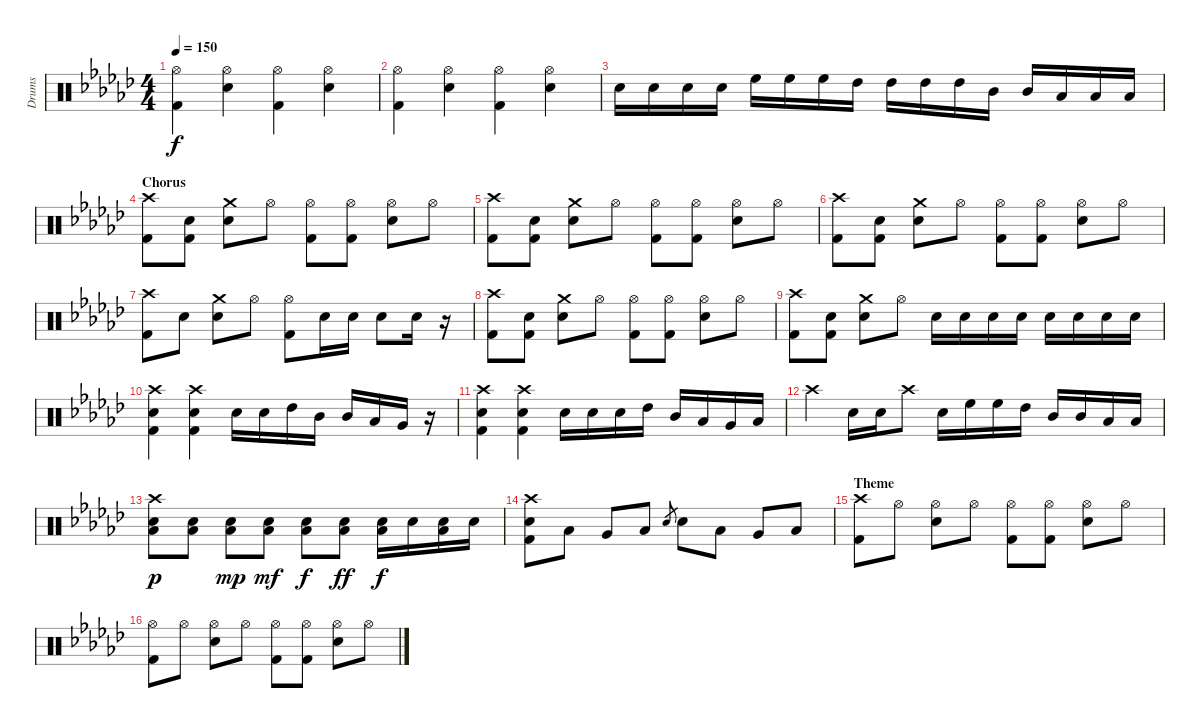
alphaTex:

\track ("Drums" "Drums") {instrument percussion}
\staff {score}
\articulation defaults
\ts (4 4)
\tempo 150
\clef neutral
\ks gb
("Hi-Hat (open)" "Kick (hit) 2").4{dy f} ("Hi-Hat (open)" "Electric Snare (hit)").4 ("Hi-Hat (open)" "Kick (hit) 2").4 ("Hi-Hat (open)" "Electric Snare (hit)").4 |
("Hi-Hat (open)" "Kick (hit) 2").4 ("Hi-Hat (open)" "Electric Snare (hit)").4 ("Hi-Hat (open)" "Kick (hit) 2").4 ("Hi-Hat (open)" "Electric Snare (hit)").4 |
"Electric Snare (hit)".16 "Electric Snare (hit)".16 "Electric Snare (hit)".16 "Electric Snare (hit)".16 "High Floor Tom (hit)".16 "High Floor Tom (hit)".16 "High Floor Tom (hit)".16 "High Tom (hit)".16 "High Tom (hit)".16 "High Tom (hit)".16 "High Tom (hit)".16 "Mid Tom (hit)".16 "Mid Tom (hit)".16 "Low Tom (hit)".16 "Low Tom (hit)".16 "Low Tom (hit)".16 |
\section ("" "Chorus")
("Crash high (hit)" "Kick (hit) 2").8 ("Electric Snare (hit)" "Kick (hit) 2").8 ("Crash medium (hit)" "Electric Snare (hit)").8 "Hi-Hat (open)".8 ("Hi-Hat (open)" "Kick (hit) 2").8 ("Hi-Hat (open)" "Kick (hit) 2").8 ("Hi-Hat (open)" "Electric Snare (hit)").8 "Hi-Hat (open)".8 |
("Crash high (hit)" "Kick (hit) 2").8 ("Electric Snare (hit)" "Kick (hit) 2").8 ("Crash medium (hit)" "Electric Snare (hit)").8 "Hi-Hat (open)".8 ("Hi-Hat (open)" "Kick (hit) 2").8 ("Hi-Hat (open)" "Kick (hit) 2").8 ("Hi-Hat (open)" "Electric Snare (hit)").8 "Hi-Hat (open)".8 |
("Crash high (hit)" "Kick (hit) 2").8 ("Electric Snare (hit)" "Kick (hit) 2").8 ("Crash medium (hit)" "Electric Snare (hit)").8 "Hi-Hat (open)".8 ("Hi-Hat (open)" "Kick (hit) 2").8 ("Hi-Hat (open)" "Kick (hit) 2").8 ("Hi-Hat (open)" "Electric Snare (hit)").8 "Hi-Hat (open)".8 |
("Crash high (hit)" "Kick (hit) 2").8 "Electric Snare (hit)".8 ("Crash medium (hit)" "Electric Snare (hit)").8 "Hi-Hat (open)".8 ("Hi-Hat (open)" "Kick (hit) 2").8 "Electric Snare (hit)".16 "Electric Snare (hit)".16 "Electric Snare (hit)".8 "Electric Snare (hit)".16 r.16 |
("Crash high (hit)" "Kick (hit) 2").8 ("Electric Snare (hit)" "Kick (hit) 2").8 ("Crash medium (hit)" "Electric Snare (hit)").8 "Hi-Hat (open)".8 ("Hi-Hat (open)" "Kick (hit) 2").8 ("Hi-Hat (open)" "Kick (hit) 2").8 ("Hi-Hat (open)" "Electric Snare (hit)").8 "Hi-Hat (open)".8 |
("Crash high (hit)" "Kick (hit) 2").8 ("Electric Snare (hit)" "Kick (hit) 2").8 ("Crash medium (hit)" "Electric Snare (hit)").8 "Hi-Hat (open)".8 "Electric Snare (hit)".16 "Electric Snare (hit)".16 "Electric Snare (hit)".16 "Electric Snare (hit)".16 "Electric Snare (hit)".16 "Electric Snare (hit)".16 "Electric Snare (hit)".16 "Electric Snare (hit)".16 |
("Crash high (hit)" "Kick (hit) 2" "Electric Snare (hit)").4 ("Crash high (hit)" "Kick (hit) 2" "Electric Snare (hit)").4 "Electric Snare (hit)".16 "Electric Snare (hit)".16 "High Tom (hit)".16 "Mid Tom (hit)".16 "Mid Tom (hit)".16 "Low Tom (hit)".16 "Very Low Tom (hit)".16 r.16 |
("Crash high (hit)" "Kick (hit) 2" "Electric Snare (hit)").4 ("Crash high (hit)" "Kick (hit) 2" "Electric Snare (hit)").4 "Electric Snare (hit)".16 "Electric Snare (hit)".16 "Electric Snare (hit)".16 "High Tom (hit)".16 "Mid Tom (hit)".16 "Low Tom (hit)".16 "Very Low Tom (hit)".16 "Low Floor Tom (hit)".16 |
"Crash high (hit)".4 "Electric Snare (hit)".16 "Electric Snare (hit)".16 "Crash high (hit)".8 "Electric Snare (hit)".16 "High Floor Tom (hit)".16 "High Floor Tom (hit)".16 "High Tom (hit)".16 "Mid Tom (hit)".16 "Mid Tom (hit)".16 "Low Tom (hit)".16 "Low Tom (hit)".16 |
("Crash high (hit)" "Low Tom (hit)" "Electric Snare (hit)").8{dy p} ("Low Tom (hit)" "Electric Snare (hit)").8 ("Low Tom (hit)" "Electric Snare (hit)").8{dy mp} ("Low Tom (hit)" "Electric Snare (hit)").8{dy mf} ("Low Tom (hit)" "Electric Snare (hit)").8{dy f} ("Low Tom (hit)" "Electric Snare (hit)").8{dy ff} ("Electric Snare (hit)" "Low Tom (hit)").16{dy f} "Electric Snare (hit)".16 ("Electric Snare (hit)" "Low Tom (hit)").16 "Electric Snare (hit)".16 |
("Crash high (hit)" "Kick (hit) 2" "Electric Snare (hit)").8 "Low Tom (hit)".8 "Very Low Tom (hit)".8 "Low Floor Tom (hit)".8 "Electric Snare (hit)".8{gr} "Electric Snare (hit)".8 "Low Tom (hit)".8 "Very Low Tom (hit)".8 "Low Floor Tom (hit)".8 |
\section ("" "Theme")
("Crash high (hit)" "Kick (hit) 2").8 "Hi-Hat (open)".8 ("Hi-Hat (open)" "Electric Snare (hit)").8 "Hi-Hat (open)".8 ("Hi-Hat (open)" "Kick (hit) 2").8 ("Hi-Hat (open)" "Kick (hit) 2").8 ("Hi-Hat (open)" "Electric Snare (hit)").8 "Hi-Hat (open)".8 |
("Hi-Hat (open)" "Kick (hit) 2").8 "Hi-Hat (open)".8 ("Hi-Hat (open)" "Electric Snare (hit)").8 "Hi-Hat (open)".8 ("Hi-Hat (open)" "Kick (hit) 2").8 ("Hi-Hat (open)" "Kick (hit) 2").8 ("Hi-Hat (open)" "Electric Snare (hit)").8 "Hi-Hat (open)".8
